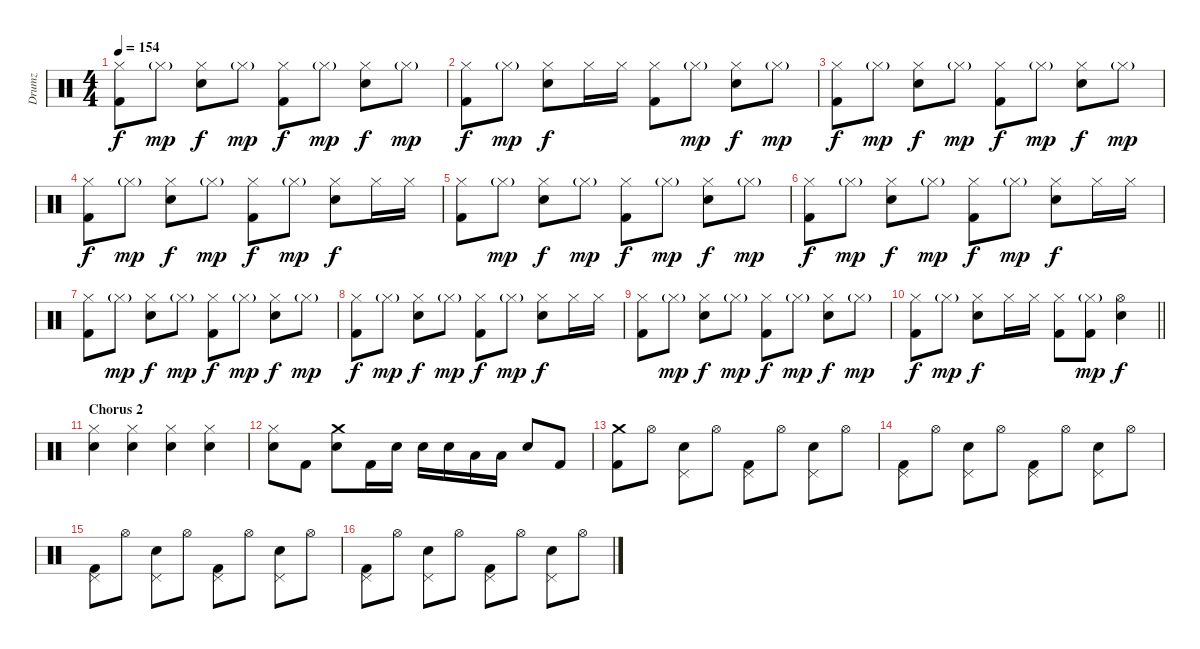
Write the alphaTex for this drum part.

\track ("Drumz" "Drumz") {instrument percussion}
\staff {score}
\articulation defaults
\ts (4 4)
\tempo 154
\clef neutral
\ks c
("Hi-Hat (closed)" "Kick (hit) 2").8{dy f} "Hi-Hat (closed)"{g}.8{dy mp} ("Hi-Hat (closed)" "Electric Snare (hit)").8{dy f} "Hi-Hat (closed)"{g}.8{dy mp} ("Hi-Hat (closed)" "Kick (hit) 2").8{dy f} "Hi-Hat (closed)"{g}.8{dy mp} ("Hi-Hat (closed)" "Electric Snare (hit)").8{dy f} "Hi-Hat (closed)"{g}.8{dy mp} |
("Hi-Hat (closed)" "Kick (hit) 2").8{dy f} "Hi-Hat (closed)"{g}.8{dy mp} ("Hi-Hat (closed)" "Electric Snare (hit)").8{dy f} "Hi-Hat (closed)".16 "Hi-Hat (closed)".16 ("Hi-Hat (closed)" "Kick (hit) 2").8 "Hi-Hat (closed)"{g}.8{dy mp} ("Hi-Hat (closed)" "Electric Snare (hit)").8{dy f} "Hi-Hat (closed)"{g}.8{dy mp} |
("Hi-Hat (closed)" "Kick (hit) 2").8{dy f} "Hi-Hat (closed)"{g}.8{dy mp} ("Hi-Hat (closed)" "Electric Snare (hit)").8{dy f} "Hi-Hat (closed)"{g}.8{dy mp} ("Hi-Hat (closed)" "Kick (hit) 2").8{dy f} "Hi-Hat (closed)"{g}.8{dy mp} ("Hi-Hat (closed)" "Electric Snare (hit)").8{dy f} "Hi-Hat (closed)"{g}.8{dy mp} |
("Hi-Hat (closed)" "Kick (hit) 2").8{dy f} "Hi-Hat (closed)"{g}.8{dy mp} ("Hi-Hat (closed)" "Electric Snare (hit)").8{dy f} "Hi-Hat (closed)"{g}.8{dy mp} ("Hi-Hat (closed)" "Kick (hit) 2").8{dy f} "Hi-Hat (closed)"{g}.8{dy mp} ("Hi-Hat (closed)" "Electric Snare (hit)").8{dy f} "Hi-Hat (closed)".16 "Hi-Hat (closed)".16 |
("Hi-Hat (closed)" "Kick (hit) 2").8 "Hi-Hat (closed)"{g}.8{dy mp} ("Hi-Hat (closed)" "Electric Snare (hit)").8{dy f} "Hi-Hat (closed)"{g}.8{dy mp} ("Hi-Hat (closed)" "Kick (hit) 2").8{dy f} "Hi-Hat (closed)"{g}.8{dy mp} ("Hi-Hat (closed)" "Electric Snare (hit)").8{dy f} "Hi-Hat (closed)"{g}.8{dy mp} |
("Hi-Hat (closed)" "Kick (hit) 2").8{dy f} "Hi-Hat (closed)"{g}.8{dy mp} ("Hi-Hat (closed)" "Electric Snare (hit)").8{dy f} "Hi-Hat (closed)"{g}.8{dy mp} ("Hi-Hat (closed)" "Kick (hit) 2").8{dy f} "Hi-Hat (closed)"{g}.8{dy mp} ("Hi-Hat (closed)" "Electric Snare (hit)").8{dy f} "Hi-Hat (closed)".16 "Hi-Hat (closed)".16 |
("Hi-Hat (closed)" "Kick (hit) 2").8 "Hi-Hat (closed)"{g}.8{dy mp} ("Hi-Hat (closed)" "Electric Snare (hit)").8{dy f} "Hi-Hat (closed)"{g}.8{dy mp} ("Hi-Hat (closed)" "Kick (hit) 2").8{dy f} "Hi-Hat (closed)"{g}.8{dy mp} ("Hi-Hat (closed)" "Electric Snare (hit)").8{dy f} "Hi-Hat (closed)"{g}.8{dy mp} |
("Hi-Hat (closed)" "Kick (hit) 2").8{dy f} "Hi-Hat (closed)"{g}.8{dy mp} ("Hi-Hat (closed)" "Electric Snare (hit)").8{dy f} "Hi-Hat (closed)"{g}.8{dy mp} ("Hi-Hat (closed)" "Kick (hit) 2").8{dy f} "Hi-Hat (closed)"{g}.8{dy mp} ("Hi-Hat (closed)" "Electric Snare (hit)").8{dy f} "Hi-Hat (closed)".16 "Hi-Hat (closed)".16 |
("Hi-Hat (closed)" "Kick (hit) 2").8 "Hi-Hat (closed)"{g}.8{dy mp} ("Hi-Hat (closed)" "Electric Snare (hit)").8{dy f} "Hi-Hat (closed)"{g}.8{dy mp} ("Hi-Hat (closed)" "Kick (hit) 2").8{dy f} "Hi-Hat (closed)"{g}.8{dy mp} ("Hi-Hat (closed)" "Electric Snare (hit)").8{dy f} "Hi-Hat (closed)"{g}.8{dy mp} |
\barLineRight lightlight
("Hi-Hat (closed)" "Kick (hit) 2").8{dy f} "Hi-Hat (closed)"{g}.8{dy mp} ("Hi-Hat (closed)" "Electric Snare (hit)").8{dy f} "Hi-Hat (closed)".16 "Hi-Hat (closed)".16 ("Hi-Hat (closed)" "Kick (hit) 2").8 ("Hi-Hat (closed)"{g} "Kick (hit) 2").8{dy mp} ("Hi-Hat (open)" "Electric Snare (hit)").4{dy f} |
\section ("" "Chorus 2")
("Hi-Hat (closed)" "Electric Snare (hit)").4 ("Hi-Hat (closed)" "Electric Snare (hit)").4 ("Hi-Hat (closed)" "Electric Snare (hit)").4 ("Hi-Hat (closed)" "Electric Snare (hit)").4 |
("Hi-Hat (closed)" "Electric Snare (hit)").8 "Kick (hit) 2".8 ("Crash medium (hit)" "Electric Snare (hit)").8 "Kick (hit) 2".16 "Electric Snare (hit)".16 "Electric Snare (hit)".16 "Electric Snare (hit)".16 "Low Tom (hit)".16 "Low Tom (hit)".16 "Electric Snare (hit)".8 "Kick (hit) 2".8 |
("Crash medium (hit)" "Kick (hit) 2").8 "Hi-Hat (open)".8 ("Pedal Hi-Hat (hit)" "Electric Snare (hit)").8 "Hi-Hat (open)".8 ("Pedal Hi-Hat (hit)" "Kick (hit) 2").8 "Hi-Hat (open)".8 ("Pedal Hi-Hat (hit)" "Electric Snare (hit)").8 "Hi-Hat (open)".8 |
("Pedal Hi-Hat (hit)" "Kick (hit) 2").8 "Hi-Hat (open)".8 ("Pedal Hi-Hat (hit)" "Electric Snare (hit)").8 "Hi-Hat (open)".8 ("Pedal Hi-Hat (hit)" "Kick (hit) 2").8 "Hi-Hat (open)".8 ("Pedal Hi-Hat (hit)" "Electric Snare (hit)").8 "Hi-Hat (open)".8 |
("Pedal Hi-Hat (hit)" "Kick (hit) 2").8 "Hi-Hat (open)".8 ("Pedal Hi-Hat (hit)" "Electric Snare (hit)").8 "Hi-Hat (open)".8 ("Pedal Hi-Hat (hit)" "Kick (hit) 2").8 "Hi-Hat (open)".8 ("Pedal Hi-Hat (hit)" "Electric Snare (hit)").8 "Hi-Hat (open)".8 |
("Pedal Hi-Hat (hit)" "Kick (hit) 2").8 "Hi-Hat (open)".8 ("Pedal Hi-Hat (hit)" "Electric Snare (hit)").8 "Hi-Hat (open)".8 ("Pedal Hi-Hat (hit)" "Kick (hit) 2").8 "Hi-Hat (open)".8 ("Pedal Hi-Hat (hit)" "Electric Snare (hit)").8 "Hi-Hat (open)".8
